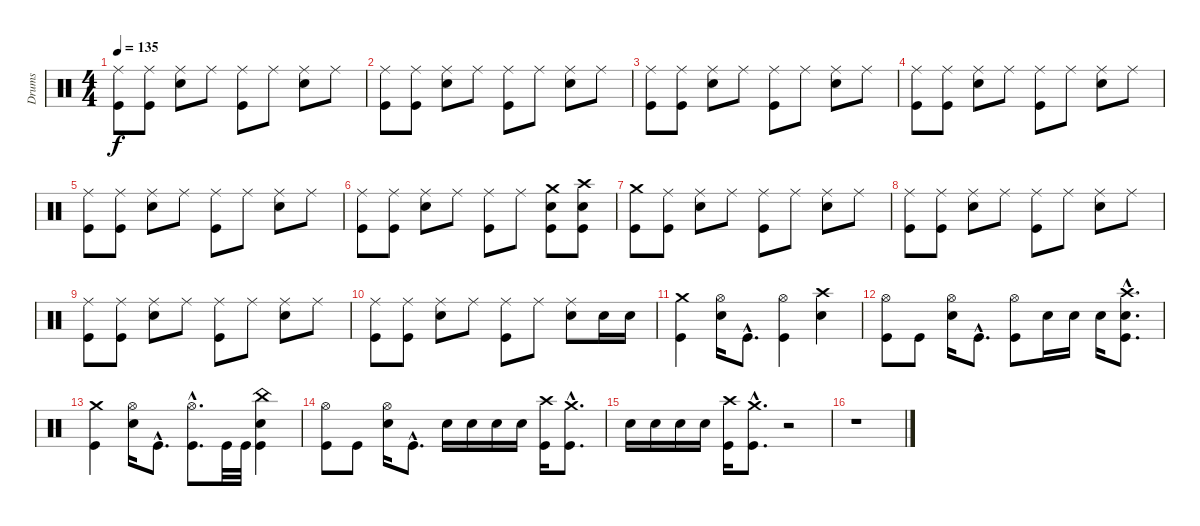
\track ("Drums" "Drums") {instrument percussion}
\staff {score}
\articulation defaults
\ts (4 4)
\tempo 135
\clef neutral
\ks c
("Ride (middle)" "Kick (hit)").8{dy f} ("Ride (middle)" "Kick (hit)").8 ("Ride (middle)" "Snare (hit) 2").8 "Ride (middle)".8 ("Ride (middle)" "Kick (hit)").8 "Ride (middle)".8 ("Ride (middle)" "Snare (hit) 2").8 "Ride (middle)".8 |
("Ride (middle)" "Kick (hit)").8 ("Ride (middle)" "Kick (hit)").8 ("Ride (middle)" "Snare (hit) 2").8 "Ride (middle)".8 ("Ride (middle)" "Kick (hit)").8 "Ride (middle)".8 ("Ride (middle)" "Snare (hit) 2").8 "Ride (middle)".8 |
("Ride (middle)" "Kick (hit)").8 ("Ride (middle)" "Kick (hit)").8 ("Ride (middle)" "Snare (hit) 2").8 "Ride (middle)".8 ("Ride (middle)" "Kick (hit)").8 "Ride (middle)".8 ("Ride (middle)" "Snare (hit) 2").8 "Ride (middle)".8 |
("Ride (middle)" "Kick (hit)").8 ("Ride (middle)" "Kick (hit)").8 ("Ride (middle)" "Snare (hit) 2").8 "Ride (middle)".8 ("Ride (middle)" "Kick (hit)").8 "Ride (middle)".8 ("Ride (middle)" "Snare (hit) 2").8 "Ride (middle)".8 |
("Ride (middle)" "Kick (hit)").8 ("Ride (middle)" "Kick (hit)").8 ("Ride (middle)" "Snare (hit) 2").8 "Ride (middle)".8 ("Ride (middle)" "Kick (hit)").8 "Ride (middle)".8 ("Ride (middle)" "Snare (hit) 2").8 "Ride (middle)".8 |
("Ride (middle)" "Kick (hit)").8 ("Ride (middle)" "Kick (hit)").8 ("Ride (middle)" "Snare (hit) 2").8 "Ride (middle)".8 ("Ride (middle)" "Kick (hit)").8 "Ride (middle)".8 ("Crash medium (hit)" "Snare (hit) 2" "Kick (hit)").8 ("Crash high (hit)" "Snare (hit) 2" "Kick (hit)").8 |
("Crash medium (hit)" "Kick (hit)").8 ("Ride (middle)" "Kick (hit)").8 ("Ride (middle)" "Snare (hit) 2").8 "Ride (middle)".8 ("Ride (middle)" "Kick (hit)").8 "Ride (middle)".8 ("Ride (middle)" "Snare (hit) 2").8 "Ride (middle)".8 |
("Ride (middle)" "Kick (hit)").8 ("Ride (middle)" "Kick (hit)").8 ("Ride (middle)" "Snare (hit) 2").8 "Ride (middle)".8 ("Ride (middle)" "Kick (hit)").8 "Ride (middle)".8 ("Ride (middle)" "Snare (hit) 2").8 "Ride (middle)".8 |
("Ride (middle)" "Kick (hit)").8 ("Ride (middle)" "Kick (hit)").8 ("Ride (middle)" "Snare (hit) 2").8 "Ride (middle)".8 ("Ride (middle)" "Kick (hit)").8 "Ride (middle)".8 ("Ride (middle)" "Snare (hit) 2").8 "Ride (middle)".8 |
("Ride (middle)" "Kick (hit)").8 ("Ride (middle)" "Kick (hit)").8 ("Ride (middle)" "Snare (hit) 2").8 "Ride (middle)".8 ("Ride (middle)" "Kick (hit)").8 "Ride (middle)".8 ("Ride (middle)" "Snare (hit) 2").8 "Snare (hit) 2".16 "Snare (hit) 2".16 |
("Crash medium (hit)" "Kick (hit)").4 ("Hi-Hat (open)" "Snare (hit) 2").16 "Kick (hit)"{hac}.8{d} ("Hi-Hat (open)" "Kick (hit)").4 ("Crash high (hit)" "Snare (hit) 2").4 |
("Hi-Hat (open)" "Kick (hit)").8 "Kick (hit)".8 ("Hi-Hat (open)" "Snare (hit) 2").16 "Kick (hit)"{hac}.8{d} ("Hi-Hat (open)" "Kick (hit)").8 "Snare (hit) 2".16 "Snare (hit) 2".16 "Snare (hit) 2".16 ("Crash high (hit)"{hac} "Snare (hit) 2"{hac} "Kick (hit)"{hac}).8{d} |
("Crash medium (hit)" "Kick (hit)").4 ("Hi-Hat (open)" "Snare (hit) 2").16 "Kick (hit)"{hac}.8{d} ("Hi-Hat (open)"{hac} "Kick (hit)"{hac}).8{d} "Kick (hit)".32 "Kick (hit)".32 ("China (hit)" "Snare (hit) 2" "Kick (hit)").4 |
("Hi-Hat (open)" "Kick (hit)").8 "Kick (hit)".8 ("Hi-Hat (open)" "Snare (hit) 2").16 "Kick (hit)"{hac}.8{d} "Snare (hit) 2".16 "Snare (hit) 2".16 "Snare (hit) 2".16 "Snare (hit) 2".16 ("Crash high (hit)" "Kick (hit)").16 ("Crash medium (hit)"{hac} "Kick (hit)"{hac}).8{d} |
"Snare (hit) 2".16 "Snare (hit) 2".16 "Snare (hit) 2".16 "Snare (hit) 2".16 ("Crash high (hit)" "Kick (hit)").16 ("Crash medium (hit)"{hac} "Kick (hit)"{hac}).8{d} r.2 |
r.1
